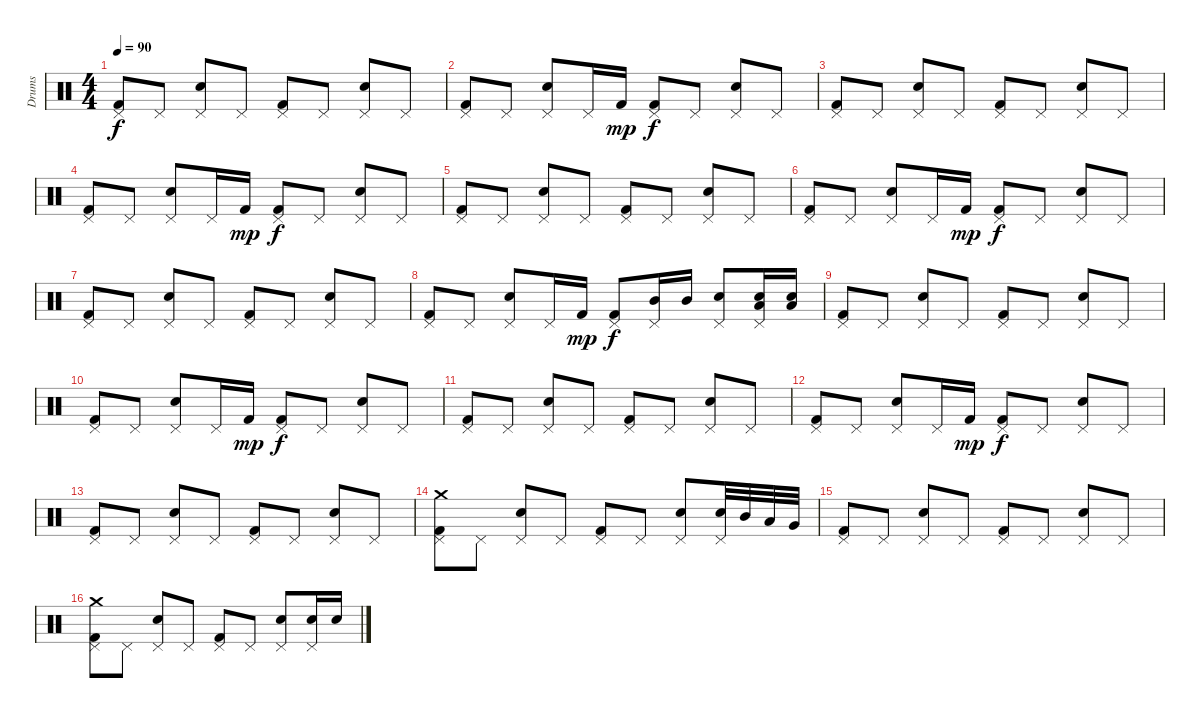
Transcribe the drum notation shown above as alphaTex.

\track ("Drums" "Drums") {instrument percussion}
\staff {score}
\articulation defaults
\ts (4 4)
\tempo 90
\clef neutral
\ks c
("Pedal Hi-Hat (hit)" "Kick (hit) 2").8{dy f} "Pedal Hi-Hat (hit)".8 ("Pedal Hi-Hat (hit)" "Electric Snare (hit)").8 "Pedal Hi-Hat (hit)".8 ("Kick (hit) 2" "Pedal Hi-Hat (hit)").8 "Pedal Hi-Hat (hit)".8 ("Electric Snare (hit)" "Pedal Hi-Hat (hit)").8 "Pedal Hi-Hat (hit)".8 |
("Pedal Hi-Hat (hit)" "Kick (hit) 2").8 "Pedal Hi-Hat (hit)".8 ("Pedal Hi-Hat (hit)" "Electric Snare (hit)").8 "Pedal Hi-Hat (hit)".16 "Kick (hit) 2".16{dy mp} ("Kick (hit) 2" "Pedal Hi-Hat (hit)").8{dy f} "Pedal Hi-Hat (hit)".8 ("Electric Snare (hit)" "Pedal Hi-Hat (hit)").8 "Pedal Hi-Hat (hit)".8 |
("Pedal Hi-Hat (hit)" "Kick (hit) 2").8 "Pedal Hi-Hat (hit)".8 ("Pedal Hi-Hat (hit)" "Electric Snare (hit)").8 "Pedal Hi-Hat (hit)".8 ("Kick (hit) 2" "Pedal Hi-Hat (hit)").8 "Pedal Hi-Hat (hit)".8 ("Electric Snare (hit)" "Pedal Hi-Hat (hit)").8 "Pedal Hi-Hat (hit)".8 |
("Pedal Hi-Hat (hit)" "Kick (hit) 2").8 "Pedal Hi-Hat (hit)".8 ("Pedal Hi-Hat (hit)" "Electric Snare (hit)").8 "Pedal Hi-Hat (hit)".16 "Kick (hit) 2".16{dy mp} ("Kick (hit) 2" "Pedal Hi-Hat (hit)").8{dy f} "Pedal Hi-Hat (hit)".8 ("Electric Snare (hit)" "Pedal Hi-Hat (hit)").8 "Pedal Hi-Hat (hit)".8 |
("Pedal Hi-Hat (hit)" "Kick (hit) 2").8 "Pedal Hi-Hat (hit)".8 ("Pedal Hi-Hat (hit)" "Electric Snare (hit)").8 "Pedal Hi-Hat (hit)".8 ("Kick (hit) 2" "Pedal Hi-Hat (hit)").8 "Pedal Hi-Hat (hit)".8 ("Electric Snare (hit)" "Pedal Hi-Hat (hit)").8 "Pedal Hi-Hat (hit)".8 |
("Pedal Hi-Hat (hit)" "Kick (hit) 2").8 "Pedal Hi-Hat (hit)".8 ("Pedal Hi-Hat (hit)" "Electric Snare (hit)").8 "Pedal Hi-Hat (hit)".16 "Kick (hit) 2".16{dy mp} ("Kick (hit) 2" "Pedal Hi-Hat (hit)").8{dy f} "Pedal Hi-Hat (hit)".8 ("Electric Snare (hit)" "Pedal Hi-Hat (hit)").8 "Pedal Hi-Hat (hit)".8 |
("Pedal Hi-Hat (hit)" "Kick (hit) 2").8 "Pedal Hi-Hat (hit)".8 ("Pedal Hi-Hat (hit)" "Electric Snare (hit)").8 "Pedal Hi-Hat (hit)".8 ("Kick (hit) 2" "Pedal Hi-Hat (hit)").8 "Pedal Hi-Hat (hit)".8 ("Electric Snare (hit)" "Pedal Hi-Hat (hit)").8 "Pedal Hi-Hat (hit)".8 |
("Pedal Hi-Hat (hit)" "Kick (hit) 2").8 "Pedal Hi-Hat (hit)".8 ("Pedal Hi-Hat (hit)" "Electric Snare (hit)").8 "Pedal Hi-Hat (hit)".16 "Kick (hit) 2".16{dy mp} ("Pedal Hi-Hat (hit)" "Kick (hit) 2").8{dy f} ("Pedal Hi-Hat (hit)" "Mid Tom (hit)").16 "Mid Tom (hit)".16 ("Electric Snare (hit)" "Pedal Hi-Hat (hit)").8 ("Pedal Hi-Hat (hit)" "Electric Snare (hit)" "Low Tom (hit)").16 ("Electric Snare (hit)" "Low Tom (hit)").16 |
("Pedal Hi-Hat (hit)" "Kick (hit) 2").8 "Pedal Hi-Hat (hit)".8 ("Pedal Hi-Hat (hit)" "Electric Snare (hit)").8 "Pedal Hi-Hat (hit)".8 ("Kick (hit) 2" "Pedal Hi-Hat (hit)").8 "Pedal Hi-Hat (hit)".8 ("Electric Snare (hit)" "Pedal Hi-Hat (hit)").8 "Pedal Hi-Hat (hit)".8 |
("Pedal Hi-Hat (hit)" "Kick (hit) 2").8 "Pedal Hi-Hat (hit)".8 ("Pedal Hi-Hat (hit)" "Electric Snare (hit)").8 "Pedal Hi-Hat (hit)".16 "Kick (hit) 2".16{dy mp} ("Kick (hit) 2" "Pedal Hi-Hat (hit)").8{dy f} "Pedal Hi-Hat (hit)".8 ("Electric Snare (hit)" "Pedal Hi-Hat (hit)").8 "Pedal Hi-Hat (hit)".8 |
("Pedal Hi-Hat (hit)" "Kick (hit) 2").8 "Pedal Hi-Hat (hit)".8 ("Pedal Hi-Hat (hit)" "Electric Snare (hit)").8 "Pedal Hi-Hat (hit)".8 ("Kick (hit) 2" "Pedal Hi-Hat (hit)").8 "Pedal Hi-Hat (hit)".8 ("Electric Snare (hit)" "Pedal Hi-Hat (hit)").8 "Pedal Hi-Hat (hit)".8 |
("Pedal Hi-Hat (hit)" "Kick (hit) 2").8 "Pedal Hi-Hat (hit)".8 ("Pedal Hi-Hat (hit)" "Electric Snare (hit)").8 "Pedal Hi-Hat (hit)".16 "Kick (hit) 2".16{dy mp} ("Kick (hit) 2" "Pedal Hi-Hat (hit)").8{dy f} "Pedal Hi-Hat (hit)".8 ("Electric Snare (hit)" "Pedal Hi-Hat (hit)").8 "Pedal Hi-Hat (hit)".8 |
("Kick (hit) 2" "Pedal Hi-Hat (hit)").8 "Pedal Hi-Hat (hit)".8 ("Pedal Hi-Hat (hit)" "Electric Snare (hit)").8 "Pedal Hi-Hat (hit)".8 ("Pedal Hi-Hat (hit)" "Kick (hit) 2").8 "Pedal Hi-Hat (hit)".8 ("Pedal Hi-Hat (hit)" "Electric Snare (hit)").8 "Pedal Hi-Hat (hit)".8 |
("Pedal Hi-Hat (hit)" "Kick (hit) 2" "Crash medium (hit)").8 "Pedal Hi-Hat (hit)".8 ("Electric Snare (hit)" "Pedal Hi-Hat (hit)").8 "Pedal Hi-Hat (hit)".8 ("Pedal Hi-Hat (hit)" "Kick (hit) 2").8 "Pedal Hi-Hat (hit)".8 ("Pedal Hi-Hat (hit)" "Electric Snare (hit)").8 ("Pedal Hi-Hat (hit)" "Electric Snare (hit)").32 "Mid Tom (hit)".32 "Low Tom (hit)".32 "Very Low Tom (hit)".32 |
("Pedal Hi-Hat (hit)" "Kick (hit) 2").8 "Pedal Hi-Hat (hit)".8 ("Pedal Hi-Hat (hit)" "Electric Snare (hit)").8 "Pedal Hi-Hat (hit)".8 ("Kick (hit) 2" "Pedal Hi-Hat (hit)").8 "Pedal Hi-Hat (hit)".8 ("Electric Snare (hit)" "Pedal Hi-Hat (hit)").8 "Pedal Hi-Hat (hit)".8 |
("Kick (hit) 2" "Pedal Hi-Hat (hit)" "Crash medium (hit)").8 "Pedal Hi-Hat (hit)".8 ("Electric Snare (hit)" "Pedal Hi-Hat (hit)").8 "Pedal Hi-Hat (hit)".8 ("Kick (hit) 2" "Pedal Hi-Hat (hit)").8 "Pedal Hi-Hat (hit)".8 ("Electric Snare (hit)" "Pedal Hi-Hat (hit)").8 ("Electric Snare (hit)" "Pedal Hi-Hat (hit)").16 "Electric Snare (hit)".16
